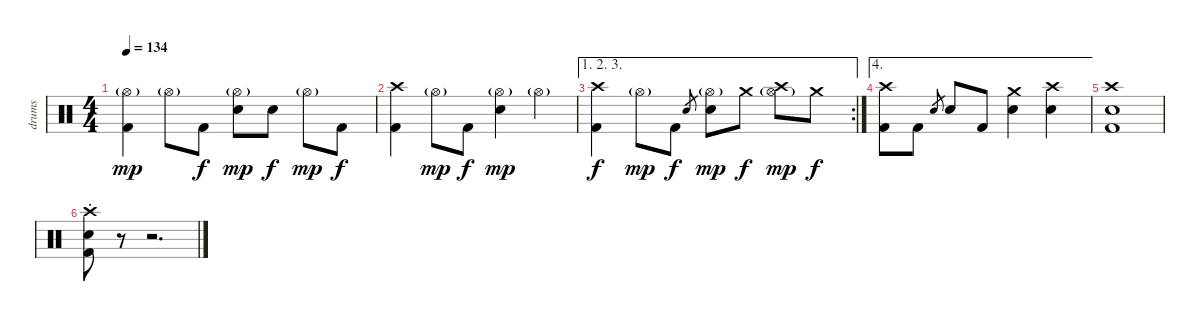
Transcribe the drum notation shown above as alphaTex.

\track ("drums" "drums") {instrument percussion}
\staff {score}
\articulation defaults
\ts (4 4)
\tempo 134
\clef neutral
\ks c
("Kick (hit) 2" "Hi-Hat (open)"{g}).4{dy mp} "Hi-Hat (open)"{g}.8 "Kick (hit) 2".8{dy f} ("Electric Snare (hit)" "Hi-Hat (open)"{g}).8{dy mp} "Electric Snare (hit)".8{dy f} "Hi-Hat (open)"{g}.8{dy mp} "Kick (hit) 2".8{dy f} |
("Kick (hit) 2" "Crash high (hit)").4 "Hi-Hat (open)"{g}.8{dy mp} "Kick (hit) 2".8{dy f} ("Electric Snare (hit)" "Hi-Hat (open)"{g}).4{dy mp} "Hi-Hat (open)"{g}.4 |
\ae (1 2 3)
\rc 2
("Kick (hit) 2" "Crash high (hit)").4{dy f} "Hi-Hat (open)"{g}.8{dy mp} "Kick (hit) 2".8{dy f} "Electric Snare (hit)".8{gr} ("Electric Snare (hit)" "Hi-Hat (open)"{g}).8{dy mp} "Crash medium (hit)".8{dy f} ("Crash high (hit)" "Hi-Hat (open)"{g}).8{dy mp} "Crash medium (hit)".8{dy f} |
\ae 4
("Kick (hit) 2" "Crash high (hit)").8 "Kick (hit) 2".8 "Electric Snare (hit)".8{gr} "Electric Snare (hit)".8 "Kick (hit) 2".8 ("Electric Snare (hit)" "Crash medium (hit)").4 ("Electric Snare (hit)" "Crash high (hit)").4 |
("Electric Snare (hit)" "Kick (hit) 2" "Crash high (hit)").1 |
("Electric Snare (hit)"{st} "Crash high (hit)"{st} "Kick (hit) 2"{st}).8 r.8 r.2{d}
